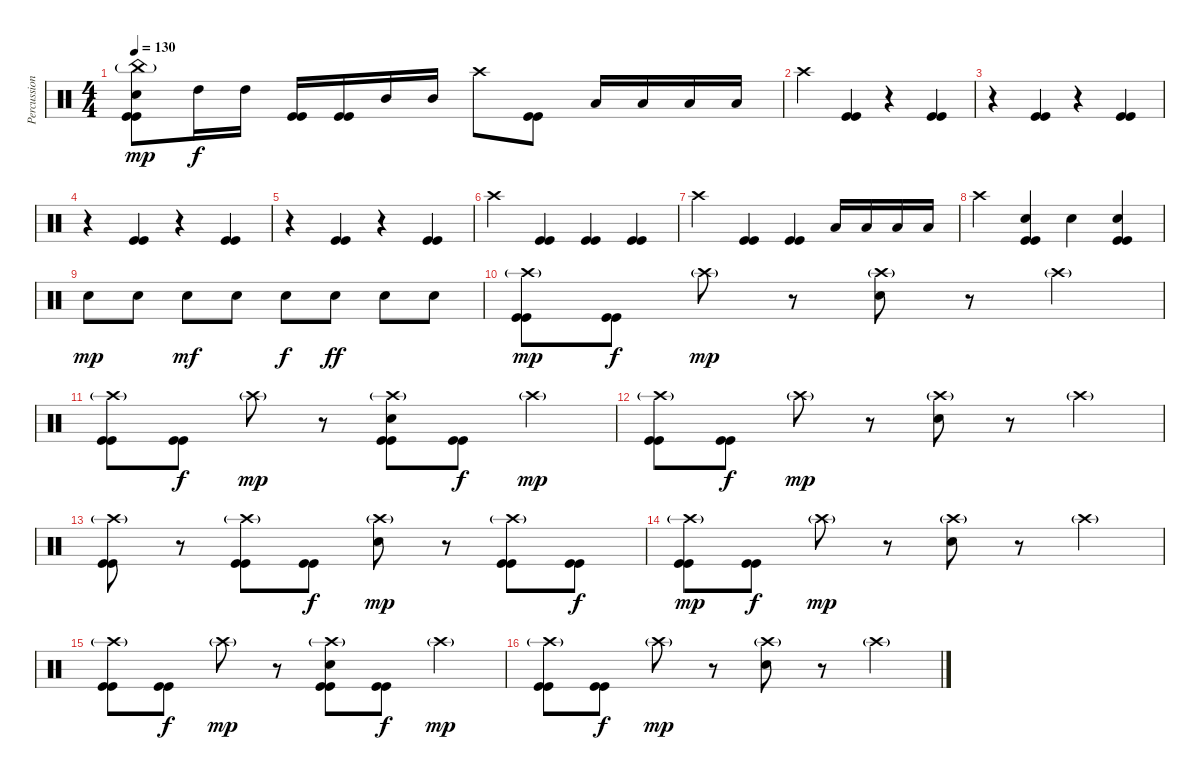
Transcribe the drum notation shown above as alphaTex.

\track ("Percussions" "Percussion") {instrument percussion}
\staff {score}
\articulation defaults
\ts (4 4)
\tempo 130
\clef neutral
\ks c
("China (hit)"{g} "Electric Snare (hit)" "Kick (hit)" "Kick (hit)").8{dy mp} "High Tom (hit)".16{dy f} "High Tom (hit)".16 ("Kick (hit)" "Kick (hit)").16 ("Kick (hit)" "Kick (hit)").16 "Mid Tom (hit)".16 "Mid Tom (hit)".16 "Crash high (hit)".8 ("Kick (hit)" "Kick (hit)").8 "Low Tom (hit)".16 "Low Tom (hit)".16 "Low Tom (hit)".16 "Low Tom (hit)".16 |
"Crash high (hit)".4 ("Kick (hit)" "Kick (hit)").4 r.4 ("Kick (hit)" "Kick (hit)").4 |
r.4 ("Kick (hit)" "Kick (hit)").4 r.4 ("Kick (hit)" "Kick (hit)").4 |
r.4 ("Kick (hit)" "Kick (hit)").4 r.4 ("Kick (hit)" "Kick (hit)").4 |
r.4 ("Kick (hit)" "Kick (hit)").4 r.4 ("Kick (hit)" "Kick (hit)").4 |
"Crash high (hit)".4 ("Kick (hit)" "Kick (hit)").4 ("Kick (hit)" "Kick (hit)").4 ("Kick (hit)" "Kick (hit)").4 |
"Crash high (hit)".4 ("Kick (hit)" "Kick (hit)").4 ("Kick (hit)" "Kick (hit)").4 "Low Tom (hit)".16 "Low Tom (hit)".16 "Low Tom (hit)".16 "Low Tom (hit)".16 |
"Crash high (hit)".4 ("Electric Snare (hit)" "Kick (hit)" "Kick (hit)").4 "Electric Snare (hit)".4 ("Electric Snare (hit)" "Kick (hit)" "Kick (hit)").4 |
"Electric Snare (hit)".8{dy mp} "Electric Snare (hit)".8 "Electric Snare (hit)".8{dy mf} "Electric Snare (hit)".8 "Electric Snare (hit)".8{dy f} "Electric Snare (hit)".8{dy ff} "Electric Snare (hit)".8 "Electric Snare (hit)".8 |
("Crash high (hit)"{g} "Kick (hit)" "Kick (hit)").8{dy mp} ("Kick (hit)" "Kick (hit)").8{dy f} "Crash high (hit)"{g}.8{dy mp} r.8 ("Crash high (hit)"{g} "Electric Snare (hit)").8 r.8 "Crash high (hit)"{g}.4 |
("Crash high (hit)"{g} "Kick (hit)" "Kick (hit)").8 ("Kick (hit)" "Kick (hit)").8{dy f} "Crash high (hit)"{g}.8{dy mp} r.8 ("Crash high (hit)"{g} "Electric Snare (hit)" "Kick (hit)" "Kick (hit)").8 ("Kick (hit)" "Kick (hit)").8{dy f} "Crash high (hit)"{g}.4{dy mp} |
("Crash high (hit)"{g} "Kick (hit)" "Kick (hit)").8 ("Kick (hit)" "Kick (hit)").8{dy f} "Crash high (hit)"{g}.8{dy mp} r.8 ("Crash high (hit)"{g} "Electric Snare (hit)").8 r.8 "Crash high (hit)"{g}.4 |
("Crash high (hit)"{g} "Kick (hit)" "Kick (hit)").8 r.8 ("Crash high (hit)"{g} "Kick (hit)" "Kick (hit)").8 ("Kick (hit)" "Kick (hit)").8{dy f} ("Crash high (hit)"{g} "Electric Snare (hit)").8{dy mp} r.8 ("Crash high (hit)"{g} "Kick (hit)" "Kick (hit)").8 ("Kick (hit)" "Kick (hit)").8{dy f} |
("Crash high (hit)"{g} "Kick (hit)" "Kick (hit)").8{dy mp} ("Kick (hit)" "Kick (hit)").8{dy f} "Crash high (hit)"{g}.8{dy mp} r.8 ("Crash high (hit)"{g} "Electric Snare (hit)").8 r.8 "Crash high (hit)"{g}.4 |
("Crash high (hit)"{g} "Kick (hit)" "Kick (hit)").8 ("Kick (hit)" "Kick (hit)").8{dy f} "Crash high (hit)"{g}.8{dy mp} r.8 ("Crash high (hit)"{g} "Electric Snare (hit)" "Kick (hit)" "Kick (hit)").8 ("Kick (hit)" "Kick (hit)").8{dy f} "Crash high (hit)"{g}.4{dy mp} |
("Crash high (hit)"{g} "Kick (hit)" "Kick (hit)").8 ("Kick (hit)" "Kick (hit)").8{dy f} "Crash high (hit)"{g}.8{dy mp} r.8 ("Crash high (hit)"{g} "Electric Snare (hit)").8 r.8 "Crash high (hit)"{g}.4
